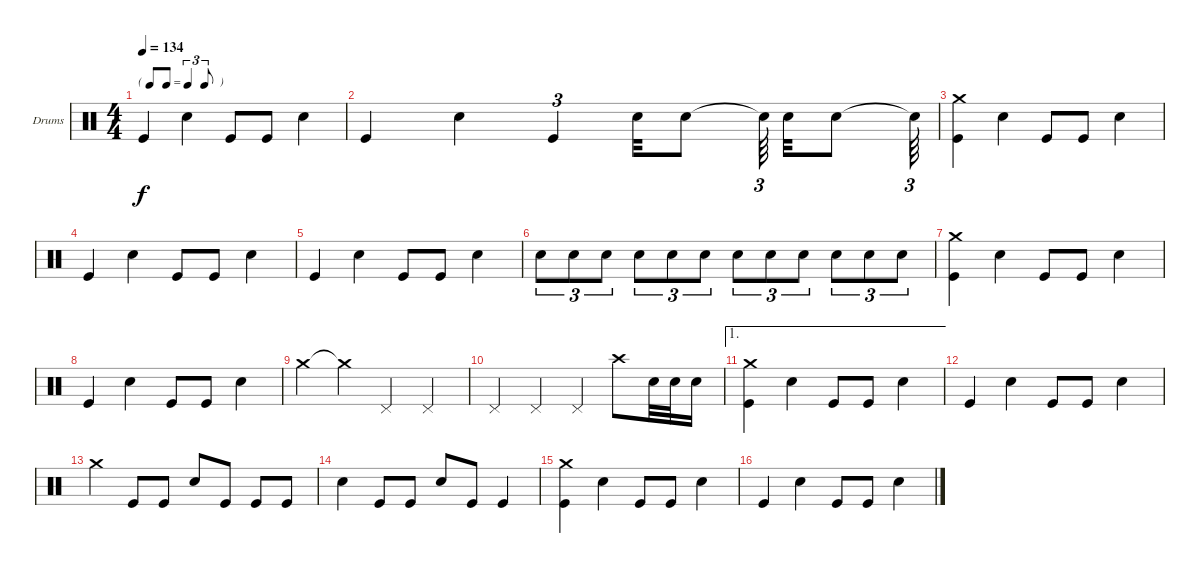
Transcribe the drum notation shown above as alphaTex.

\bracketExtendMode groupsimilarinstruments
\firstSystemTrackNameOrientation horizontal
\otherSystemsTrackNameOrientation horizontal
\track ("Drumkit" "Drums") {instrument percussion}
\staff {score}
\articulation defaults
\ts (4 4)
\tf triplet8th
\tempo 134
\clef neutral
\ks c "Kick (hit)".4{dy f} "Snare (hit) 2".4 "Kick (hit)".8 "Kick (hit)".8 "Snare (hit) 2".4
|
"Kick (hit)".4 "Snare (hit) 2".4 "Kick (hit)".4{tu (3 2)} "Snare (hit) 2".32 "Snare (hit) 2".8 "Snare (hit) 2"{t}.64{tu (3 2)} "Snare (hit) 2".32 "Snare (hit) 2".8 "Snare (hit) 2"{t}.64{tu (3 2)} |
("Kick (hit)" "Crash medium (hit)").4 "Snare (hit) 2".4 "Kick (hit)".8 "Kick (hit)".8 "Snare (hit) 2".4 |
"Kick (hit)".4 "Snare (hit) 2".4 "Kick (hit)".8 "Kick (hit)".8 "Snare (hit) 2".4 |
"Kick (hit)".4 "Snare (hit) 2".4 "Kick (hit)".8 "Kick (hit)".8 "Snare (hit) 2".4 |
"Snare (hit) 2".8{tu (3 2)} "Snare (hit) 2".8{tu (3 2)} "Snare (hit) 2".8{tu (3 2)} "Snare (hit) 2".8{tu (3 2)} "Snare (hit) 2".8{tu (3 2)} "Snare (hit) 2".8{tu (3 2)} "Snare (hit) 2".8{tu (3 2)} "Snare (hit) 2".8{tu (3 2)} "Snare (hit) 2".8{tu (3 2)} "Snare (hit) 2".8{tu (3 2)} "Snare (hit) 2".8{tu (3 2)} "Snare (hit) 2".8{tu (3 2)} |
("Kick (hit)" "Crash medium (hit)").4 "Snare (hit) 2".4 "Kick (hit)".8 "Kick (hit)".8 "Snare (hit) 2".4 |
"Kick (hit)".4 "Snare (hit) 2".4 "Kick (hit)".8 "Kick (hit)".8 "Snare (hit) 2".4 |
"Crash medium (hit)".4 "Crash medium (hit)"{t}.4 "Pedal Hi-Hat (hit)".4 "Pedal Hi-Hat (hit)".4 |
"Pedal Hi-Hat (hit)".4 "Pedal Hi-Hat (hit)".4 "Pedal Hi-Hat (hit)".4 "Crash high (hit)".8 "Snare (hit) 2".32 "Snare (hit) 2".32 "Snare (hit) 2".16 |
\ae 1
("Kick (hit)" "Crash medium (hit)").4 "Snare (hit) 2".4 "Kick (hit)".8 "Kick (hit)".8 "Snare (hit) 2".4 |
"Kick (hit)".4 "Snare (hit) 2".4 "Kick (hit)".8 "Kick (hit)".8 "Snare (hit) 2".4 |
"Crash medium (hit)".4 "Kick (hit)".8 "Kick (hit)".8 "Snare (hit) 2".8 "Kick (hit)".8 "Kick (hit)".8 "Kick (hit)".8 |
"Snare (hit) 2".4 "Kick (hit)".8 "Kick (hit)".8 "Snare (hit) 2".8 "Kick (hit)".8 "Kick (hit)".4 |
("Kick (hit)" "Crash medium (hit)").4 "Snare (hit) 2".4 "Kick (hit)".8 "Kick (hit)".8 "Snare (hit) 2".4 |
"Kick (hit)".4 "Snare (hit) 2".4 "Kick (hit)".8 "Kick (hit)".8 "Snare (hit) 2".4
